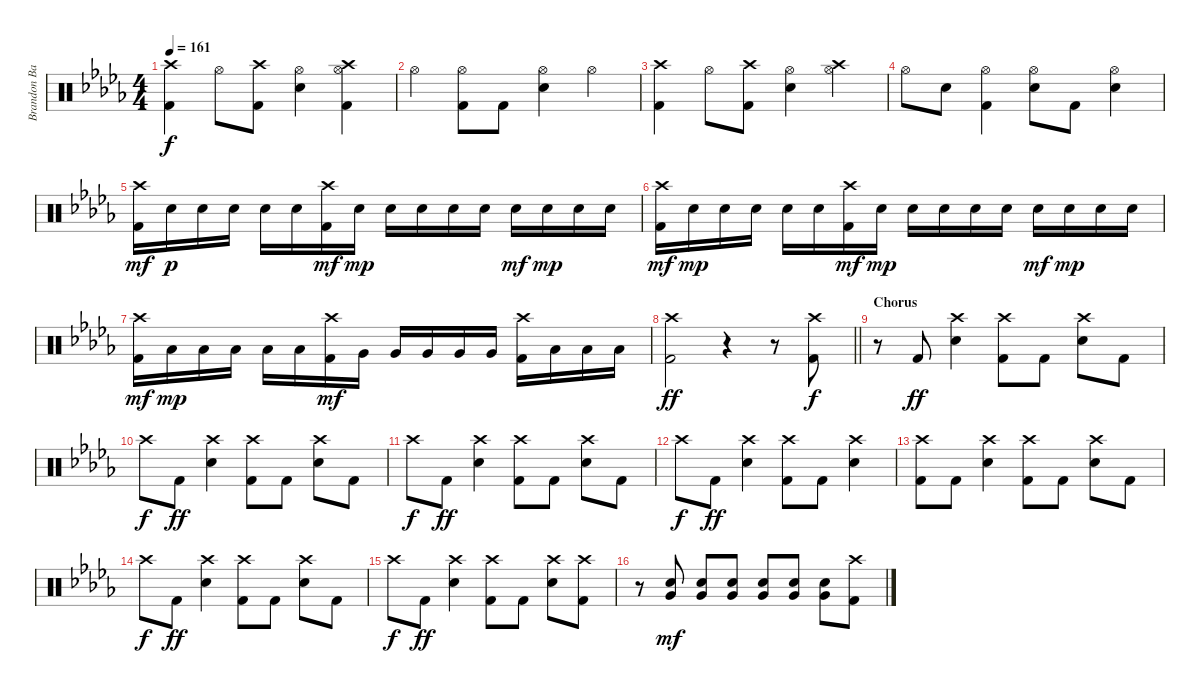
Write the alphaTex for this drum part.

\track ("Brandon Barnes - Drums" "Brandon Ba") {instrument percussion}
\staff {score}
\articulation defaults
\ts (4 4)
\tempo 161
\clef neutral
\ks db
("Crash high (hit)" "Kick (hit) 2").4{dy f} "Hi-Hat (open)".8 ("Kick (hit) 2" "Crash high (hit)").8 ("Snare (hit) 2" "Hi-Hat (open)").4 ("Kick (hit) 2" "Crash high (hit)" "Hi-Hat (open)").4 |
"Hi-Hat (open)".4 ("Kick (hit) 2" "Hi-Hat (open)").8 "Kick (hit) 2".8 ("Snare (hit) 2" "Hi-Hat (open)").4 "Hi-Hat (open)".4 |
("Crash high (hit)" "Kick (hit) 2").4 "Hi-Hat (open)".8 ("Kick (hit) 2" "Crash high (hit)").8 ("Snare (hit) 2" "Hi-Hat (open)").4 ("Crash high (hit)" "Hi-Hat (open)").4 |
"Hi-Hat (open)".8 "Snare (hit) 2".8 ("Kick (hit) 2" "Hi-Hat (open)").4 ("Snare (hit) 2" "Hi-Hat (open)").8 "Kick (hit) 2".8 ("Snare (hit) 2" "Hi-Hat (open)").4 |
("Kick (hit) 2" "Crash high (hit)").16{dy mf} "Snare (hit) 2".16{dy p} "Snare (hit) 2".16 "Snare (hit) 2".16 "Snare (hit) 2".16 "Snare (hit) 2".16 ("Kick (hit) 2" "Crash high (hit)").16{dy mf} "Snare (hit) 2".16{dy mp} "Snare (hit) 2".16 "Snare (hit) 2".16 "Snare (hit) 2".16 "Snare (hit) 2".16 "Snare (hit) 2".16{dy mf} "Snare (hit) 2".16{dy mp} "Snare (hit) 2".16 "Snare (hit) 2".16 |
("Kick (hit) 2" "Crash high (hit)").16{dy mf} "Snare (hit) 2".16{dy mp} "Snare (hit) 2".16 "Snare (hit) 2".16 "Snare (hit) 2".16 "Snare (hit) 2".16 ("Kick (hit) 2" "Crash high (hit)").16{dy mf} "Snare (hit) 2".16{dy mp} "Snare (hit) 2".16 "Snare (hit) 2".16 "Snare (hit) 2".16 "Snare (hit) 2".16 "Snare (hit) 2".16{dy mf} "Snare (hit) 2".16{dy mp} "Snare (hit) 2".16 "Snare (hit) 2".16 |
("Kick (hit) 2" "Crash high (hit)").16{dy mf} "Low Tom (hit)".16{dy mp} "Low Tom (hit)".16 "Low Tom (hit)".16 "Low Tom (hit)".16 "Low Tom (hit)".16 ("Kick (hit) 2" "Crash high (hit)").16{dy mf} "Very Low Tom (hit)".16 "Very Low Tom (hit)".16 "Very Low Tom (hit)".16 "Very Low Tom (hit)".16 "Very Low Tom (hit)".16 ("Crash high (hit)" "Kick (hit) 2").16 "Low Floor Tom (hit)".16 "Low Floor Tom (hit)".16 "Low Floor Tom (hit)".16 |
\barLineRight lightlight
("Kick (hit) 2" "Crash high (hit)").2{dy ff} r.4 r.8 ("Crash high (hit)" "Kick (hit) 2").8{dy f} |
\section ("" "Chorus")
r.8 "Kick (hit) 2".8{dy ff} ("Snare (hit) 2" "Crash high (hit)").4 ("Kick (hit) 2" "Crash high (hit)").8 "Kick (hit) 2".8 ("Snare (hit) 2" "Crash high (hit)").8 "Kick (hit) 2".8 |
"Crash high (hit)".8{dy f} "Kick (hit) 2".8{dy ff} ("Snare (hit) 2" "Crash high (hit)").4 ("Kick (hit) 2" "Crash high (hit)").8 "Kick (hit) 2".8 ("Snare (hit) 2" "Crash high (hit)").8 "Kick (hit) 2".8 |
"Crash high (hit)".8{dy f} "Kick (hit) 2".8{dy ff} ("Snare (hit) 2" "Crash high (hit)").4 ("Kick (hit) 2" "Crash high (hit)").8 "Kick (hit) 2".8 ("Snare (hit) 2" "Crash high (hit)").8 "Kick (hit) 2".8 |
"Crash high (hit)".8{dy f} "Kick (hit) 2".8{dy ff} ("Snare (hit) 2" "Crash high (hit)").4 ("Kick (hit) 2" "Crash high (hit)").8 "Kick (hit) 2".8 ("Snare (hit) 2" "Crash high (hit)").4 |
("Kick (hit) 2" "Crash high (hit)").8 "Kick (hit) 2".8 ("Snare (hit) 2" "Crash high (hit)").4 ("Kick (hit) 2" "Crash high (hit)").8 "Kick (hit) 2".8 ("Snare (hit) 2" "Crash high (hit)").8 "Kick (hit) 2".8 |
"Crash high (hit)".8{dy f} "Kick (hit) 2".8{dy ff} ("Snare (hit) 2" "Crash high (hit)").4 ("Kick (hit) 2" "Crash high (hit)").8 "Kick (hit) 2".8 ("Snare (hit) 2" "Crash high (hit)").8 "Kick (hit) 2".8 |
"Crash high (hit)".8{dy f} "Kick (hit) 2".8{dy ff} ("Snare (hit) 2" "Crash high (hit)").4 ("Kick (hit) 2" "Crash high (hit)").8 "Kick (hit) 2".8 ("Snare (hit) 2" "Crash high (hit)").8 ("Kick (hit) 2" "Crash high (hit)").8 |
r.8 ("Snare (hit) 2" "Very Low Tom (hit)").8{dy mf} ("Snare (hit) 2" "Very Low Tom (hit)").8 ("Snare (hit) 2" "Very Low Tom (hit)").8 ("Snare (hit) 2" "Very Low Tom (hit)").8 ("Snare (hit) 2" "Very Low Tom (hit)").8 ("Snare (hit) 2" "Very Low Tom (hit)").8 ("Kick (hit) 2" "Crash high (hit)").8
